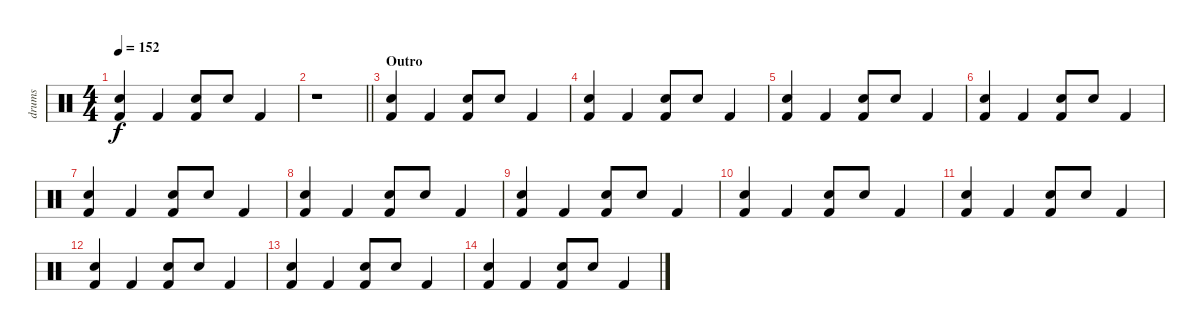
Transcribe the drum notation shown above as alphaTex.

\track ("drums" "drums") {instrument percussion}
\staff {score}
\articulation defaults
\ts (4 4)
\tempo 152
\clef neutral
\ks c
("Snare (hit) 2" "Kick (hit) 2").4{dy f} "Kick (hit) 2".4 ("Snare (hit) 2" "Kick (hit) 2").8 "Snare (hit) 2".8 "Kick (hit) 2".4 |
\barLineRight lightlight
r.1 |
\section ("" "Outro")
("Snare (hit) 2" "Kick (hit) 2").4 "Kick (hit) 2".4 ("Snare (hit) 2" "Kick (hit) 2").8 "Snare (hit) 2".8 "Kick (hit) 2".4 |
("Snare (hit) 2" "Kick (hit) 2").4 "Kick (hit) 2".4 ("Snare (hit) 2" "Kick (hit) 2").8 "Snare (hit) 2".8 "Kick (hit) 2".4 |
("Snare (hit) 2" "Kick (hit) 2").4 "Kick (hit) 2".4 ("Snare (hit) 2" "Kick (hit) 2").8 "Snare (hit) 2".8 "Kick (hit) 2".4 |
("Snare (hit) 2" "Kick (hit) 2").4 "Kick (hit) 2".4 ("Snare (hit) 2" "Kick (hit) 2").8 "Snare (hit) 2".8 "Kick (hit) 2".4 |
("Snare (hit) 2" "Kick (hit) 2").4 "Kick (hit) 2".4 ("Snare (hit) 2" "Kick (hit) 2").8 "Snare (hit) 2".8 "Kick (hit) 2".4 |
("Snare (hit) 2" "Kick (hit) 2").4 "Kick (hit) 2".4 ("Snare (hit) 2" "Kick (hit) 2").8 "Snare (hit) 2".8 "Kick (hit) 2".4 |
("Snare (hit) 2" "Kick (hit) 2").4 "Kick (hit) 2".4 ("Snare (hit) 2" "Kick (hit) 2").8 "Snare (hit) 2".8 "Kick (hit) 2".4 |
("Snare (hit) 2" "Kick (hit) 2").4 "Kick (hit) 2".4 ("Snare (hit) 2" "Kick (hit) 2").8 "Snare (hit) 2".8 "Kick (hit) 2".4 |
("Snare (hit) 2" "Kick (hit) 2").4 "Kick (hit) 2".4 ("Snare (hit) 2" "Kick (hit) 2").8 "Snare (hit) 2".8 "Kick (hit) 2".4 |
("Snare (hit) 2" "Kick (hit) 2").4 "Kick (hit) 2".4 ("Snare (hit) 2" "Kick (hit) 2").8 "Snare (hit) 2".8 "Kick (hit) 2".4 |
("Snare (hit) 2" "Kick (hit) 2").4 "Kick (hit) 2".4 ("Snare (hit) 2" "Kick (hit) 2").8 "Snare (hit) 2".8 "Kick (hit) 2".4 |
("Snare (hit) 2" "Kick (hit) 2").4 "Kick (hit) 2".4 ("Snare (hit) 2" "Kick (hit) 2").8 "Snare (hit) 2".8 "Kick (hit) 2".4
